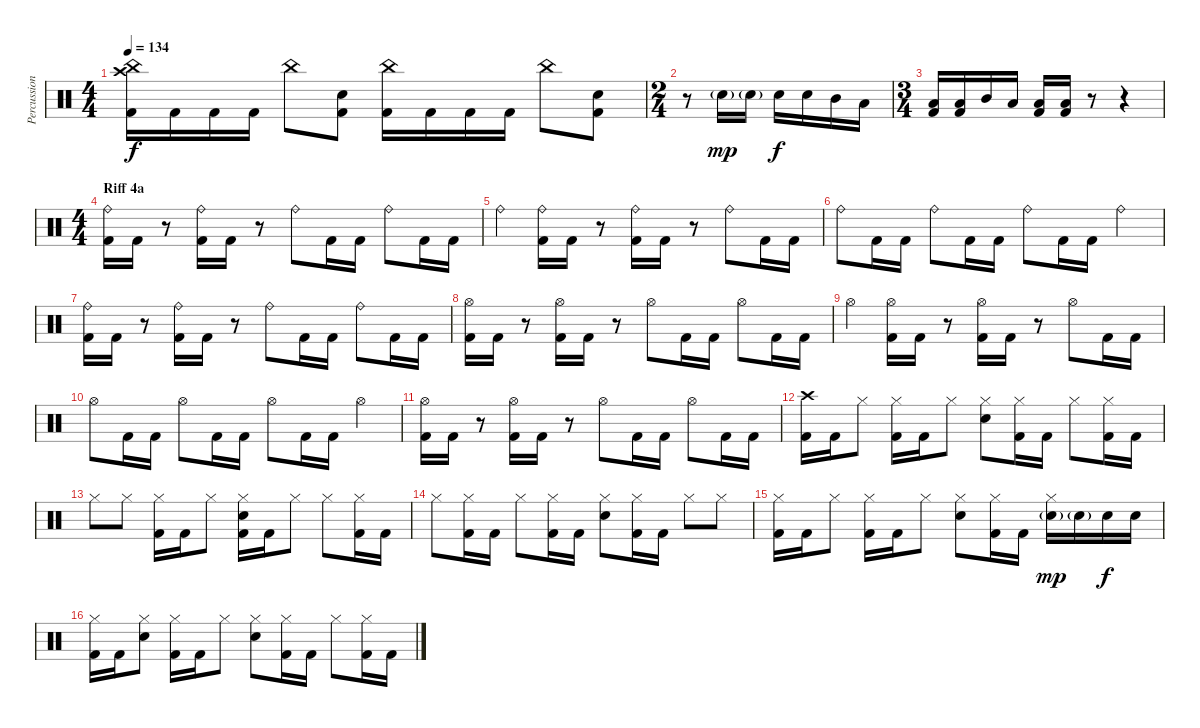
\track ("Percussion" "Percussion") {instrument percussion}
\staff {score}
\articulation defaults
\ts (4 4)
\tempo 134
\clef neutral
\ks c
("China (hit)" "Crash high (hit)" "Kick (hit) 2").16{dy f} "Kick (hit) 2".16 "Kick (hit) 2".16 "Kick (hit) 2".16 "China (hit)".8 ("Electric Snare (hit)" "Kick (hit) 2").8 ("China (hit)" "Kick (hit) 2").16 "Kick (hit) 2".16 "Kick (hit) 2".16 "Kick (hit) 2".16 "China (hit)".8 ("Electric Snare (hit)" "Kick (hit) 2").8 |
\ts (2 4)
r.8 "Electric Snare (hit)"{g}.16{dy mp} "Electric Snare (hit)"{g}.16 "Electric Snare (hit)".16{dy f} "Electric Snare (hit)".16 "Mid Tom (hit)".16 "Low Tom (hit)".16 |
\ts (3 4)
("Low Floor Tom (hit)" "Kick (hit) 2").16 ("Low Floor Tom (hit)" "Kick (hit) 2").16 "Mid Tom (hit)".16 "Low Tom (hit)".16 ("Low Floor Tom (hit)" "Kick (hit) 2").16 ("Low Floor Tom (hit)" "Kick (hit) 2").16 r.8 r.4 |
\ts (4 4)
\section ("" "Riff 4a")
("Ride (bell)" "Kick (hit) 2").16 "Kick (hit) 2".16 r.8 ("Ride (bell)" "Kick (hit) 2").16 "Kick (hit) 2".16 r.8 "Ride (bell)".8 "Kick (hit) 2".16 "Kick (hit) 2".16 "Ride (bell)".8 "Kick (hit) 2".16 "Kick (hit) 2".16 |
"Ride (bell)".4 ("Ride (bell)" "Kick (hit) 2").16 "Kick (hit) 2".16 r.8 ("Ride (bell)" "Kick (hit) 2").16 "Kick (hit) 2".16 r.8 "Ride (bell)".8 "Kick (hit) 2".16 "Kick (hit) 2".16 |
"Ride (bell)".8 "Kick (hit) 2".16 "Kick (hit) 2".16 "Ride (bell)".8 "Kick (hit) 2".16 "Kick (hit) 2".16 "Ride (bell)".8 "Kick (hit) 2".16 "Kick (hit) 2".16 "Ride (bell)".4 |
("Ride (bell)" "Kick (hit) 2").16 "Kick (hit) 2".16 r.8 ("Ride (bell)" "Kick (hit) 2").16 "Kick (hit) 2".16 r.8 "Ride (bell)".8 "Kick (hit) 2".16 "Kick (hit) 2".16 "Ride (bell)".8 "Kick (hit) 2".16 "Kick (hit) 2".16 |
("Hi-Hat (open)" "Kick (hit) 2").16 "Kick (hit) 2".16 r.8 ("Hi-Hat (open)" "Kick (hit) 2").16 "Kick (hit) 2".16 r.8 "Hi-Hat (open)".8 "Kick (hit) 2".16 "Kick (hit) 2".16 "Hi-Hat (open)".8 "Kick (hit) 2".16 "Kick (hit) 2".16 |
"Hi-Hat (open)".4 ("Hi-Hat (open)" "Kick (hit) 2").16 "Kick (hit) 2".16 r.8 ("Hi-Hat (open)" "Kick (hit) 2").16 "Kick (hit) 2".16 r.8 "Hi-Hat (open)".8 "Kick (hit) 2".16 "Kick (hit) 2".16 |
"Hi-Hat (open)".8 "Kick (hit) 2".16 "Kick (hit) 2".16 "Hi-Hat (open)".8 "Kick (hit) 2".16 "Kick (hit) 2".16 "Hi-Hat (open)".8 "Kick (hit) 2".16 "Kick (hit) 2".16 "Hi-Hat (open)".4 |
("Hi-Hat (open)" "Kick (hit) 2").16 "Kick (hit) 2".16 r.8 ("Hi-Hat (open)" "Kick (hit) 2").16 "Kick (hit) 2".16 r.8 "Hi-Hat (open)".8 "Kick (hit) 2".16 "Kick (hit) 2".16 "Hi-Hat (open)".8 "Kick (hit) 2".16 "Kick (hit) 2".16 |
("Crash high (hit)" "Kick (hit) 2").16 "Kick (hit) 2".16 "Hi-Hat (closed)".8 ("Hi-Hat (closed)" "Kick (hit) 2").16 "Kick (hit) 2".16 "Hi-Hat (closed)".8 ("Hi-Hat (closed)" "Electric Snare (hit)").8 ("Hi-Hat (closed)" "Kick (hit) 2").16 "Kick (hit) 2".16 "Hi-Hat (closed)".8 ("Hi-Hat (closed)" "Kick (hit) 2").16 "Kick (hit) 2".16 |
"Hi-Hat (closed)".8 "Hi-Hat (closed)".8 ("Hi-Hat (closed)" "Kick (hit) 2").16 "Kick (hit) 2".16 "Hi-Hat (closed)".8 ("Hi-Hat (closed)" "Electric Snare (hit)" "Kick (hit) 2").16 "Kick (hit) 2".16 "Hi-Hat (closed)".8 "Hi-Hat (closed)".8 ("Hi-Hat (closed)" "Kick (hit) 2").16 "Kick (hit) 2".16 |
"Hi-Hat (closed)".8 ("Hi-Hat (closed)" "Kick (hit) 2").16 "Kick (hit) 2".16 "Hi-Hat (closed)".8 ("Hi-Hat (closed)" "Kick (hit) 2").16 "Kick (hit) 2".16 ("Hi-Hat (closed)" "Electric Snare (hit)").8 ("Hi-Hat (closed)" "Kick (hit) 2").16 "Kick (hit) 2".16 "Hi-Hat (closed)".8 "Hi-Hat (closed)".8 |
("Hi-Hat (closed)" "Kick (hit) 2").16 "Kick (hit) 2".16 "Hi-Hat (closed)".8 ("Hi-Hat (closed)" "Kick (hit) 2").16 "Kick (hit) 2".16 "Hi-Hat (closed)".8 ("Hi-Hat (closed)" "Electric Snare (hit)").8 ("Hi-Hat (closed)" "Kick (hit) 2").16 "Kick (hit) 2".16 ("Hi-Hat (closed)" "Electric Snare (hit)"{g}).16{dy mp} "Electric Snare (hit)"{g}.16 "Electric Snare (hit)".16{dy f} "Electric Snare (hit)".16 |
("Hi-Hat (closed)" "Kick (hit) 2").16 "Kick (hit) 2".16 ("Hi-Hat (closed)" "Electric Snare (hit)").8 ("Hi-Hat (closed)" "Kick (hit) 2").16 "Kick (hit) 2".16 "Hi-Hat (closed)".8 ("Hi-Hat (closed)" "Electric Snare (hit)").8 ("Hi-Hat (closed)" "Kick (hit) 2").16 "Kick (hit) 2".16 "Hi-Hat (closed)".8 ("Hi-Hat (closed)" "Kick (hit) 2").16 "Kick (hit) 2".16
